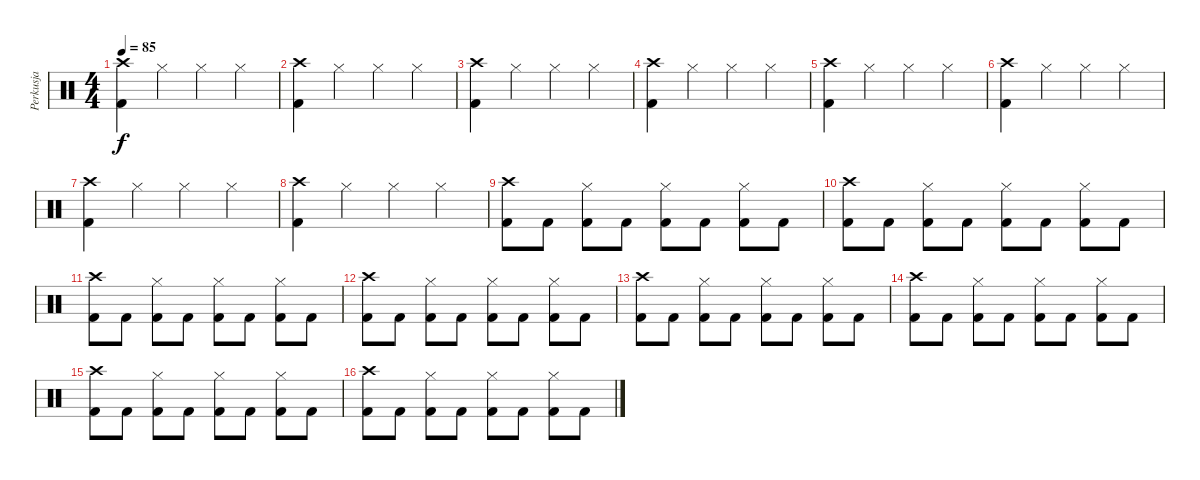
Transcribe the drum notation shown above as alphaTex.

\track ("Perkusja" "Perkusja") {instrument percussion}
\staff {score}
\articulation defaults
\ts (4 4)
\tempo 85
\clef neutral
\ks c
("Crash high (hit)" "Kick (hit) 2").4{dy f} "Hi-Hat (closed)".4 "Hi-Hat (closed)".4 "Hi-Hat (closed)".4 |
("Crash high (hit)" "Kick (hit) 2").4 "Hi-Hat (closed)".4 "Hi-Hat (closed)".4 "Hi-Hat (closed)".4 |
("Crash high (hit)" "Kick (hit) 2").4 "Hi-Hat (closed)".4 "Hi-Hat (closed)".4 "Hi-Hat (closed)".4 |
("Crash high (hit)" "Kick (hit) 2").4 "Hi-Hat (closed)".4 "Hi-Hat (closed)".4 "Hi-Hat (closed)".4 |
("Crash high (hit)" "Kick (hit) 2").4 "Hi-Hat (closed)".4 "Hi-Hat (closed)".4 "Hi-Hat (closed)".4 |
("Crash high (hit)" "Kick (hit) 2").4 "Hi-Hat (closed)".4 "Hi-Hat (closed)".4 "Hi-Hat (closed)".4 |
("Crash high (hit)" "Kick (hit) 2").4 "Hi-Hat (closed)".4 "Hi-Hat (closed)".4 "Hi-Hat (closed)".4 |
("Crash high (hit)" "Kick (hit) 2").4 "Hi-Hat (closed)".4 "Hi-Hat (closed)".4 "Hi-Hat (closed)".4 |
("Crash high (hit)" "Kick (hit) 2").8 "Kick (hit) 2".8 ("Hi-Hat (closed)" "Kick (hit) 2").8 "Kick (hit) 2".8 ("Hi-Hat (closed)" "Kick (hit) 2").8 "Kick (hit) 2".8 ("Hi-Hat (closed)" "Kick (hit) 2").8 "Kick (hit) 2".8 |
("Crash high (hit)" "Kick (hit) 2").8 "Kick (hit) 2".8 ("Hi-Hat (closed)" "Kick (hit) 2").8 "Kick (hit) 2".8 ("Hi-Hat (closed)" "Kick (hit) 2").8 "Kick (hit) 2".8 ("Hi-Hat (closed)" "Kick (hit) 2").8 "Kick (hit) 2".8 |
("Crash high (hit)" "Kick (hit) 2").8 "Kick (hit) 2".8 ("Hi-Hat (closed)" "Kick (hit) 2").8 "Kick (hit) 2".8 ("Hi-Hat (closed)" "Kick (hit) 2").8 "Kick (hit) 2".8 ("Hi-Hat (closed)" "Kick (hit) 2").8 "Kick (hit) 2".8 |
("Crash high (hit)" "Kick (hit) 2").8 "Kick (hit) 2".8 ("Hi-Hat (closed)" "Kick (hit) 2").8 "Kick (hit) 2".8 ("Hi-Hat (closed)" "Kick (hit) 2").8 "Kick (hit) 2".8 ("Hi-Hat (closed)" "Kick (hit) 2").8 "Kick (hit) 2".8 |
("Crash high (hit)" "Kick (hit) 2").8 "Kick (hit) 2".8 ("Hi-Hat (closed)" "Kick (hit) 2").8 "Kick (hit) 2".8 ("Hi-Hat (closed)" "Kick (hit) 2").8 "Kick (hit) 2".8 ("Hi-Hat (closed)" "Kick (hit) 2").8 "Kick (hit) 2".8 |
("Crash high (hit)" "Kick (hit) 2").8 "Kick (hit) 2".8 ("Hi-Hat (closed)" "Kick (hit) 2").8 "Kick (hit) 2".8 ("Hi-Hat (closed)" "Kick (hit) 2").8 "Kick (hit) 2".8 ("Hi-Hat (closed)" "Kick (hit) 2").8 "Kick (hit) 2".8 |
("Crash high (hit)" "Kick (hit) 2").8 "Kick (hit) 2".8 ("Hi-Hat (closed)" "Kick (hit) 2").8 "Kick (hit) 2".8 ("Hi-Hat (closed)" "Kick (hit) 2").8 "Kick (hit) 2".8 ("Hi-Hat (closed)" "Kick (hit) 2").8 "Kick (hit) 2".8 |
("Crash high (hit)" "Kick (hit) 2").8 "Kick (hit) 2".8 ("Hi-Hat (closed)" "Kick (hit) 2").8 "Kick (hit) 2".8 ("Hi-Hat (closed)" "Kick (hit) 2").8 "Kick (hit) 2".8 ("Hi-Hat (closed)" "Kick (hit) 2").8 "Kick (hit) 2".8
